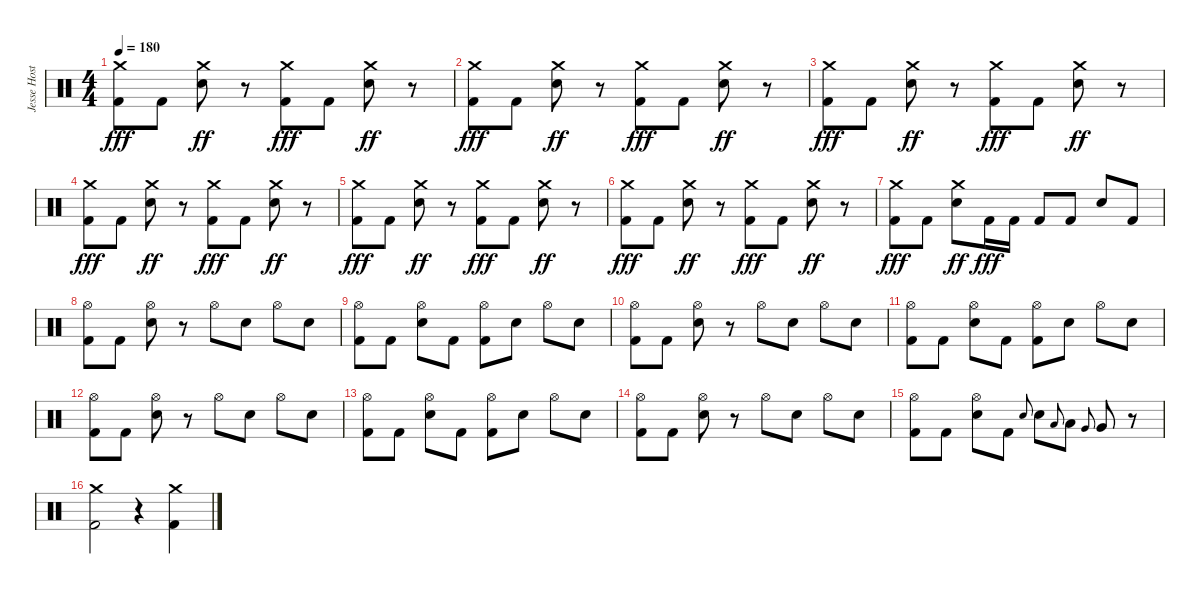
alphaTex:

\track ("Jesse Hostetler" "Jesse Host") {instrument percussion}
\staff {score}
\articulation defaults
\ts (4 4)
\tempo 180
\clef neutral
\ks c
("Crash medium (hit)" "Kick (hit) 2").8{dy fff} "Kick (hit) 2".8 ("Crash medium (hit)" "Electric Snare (hit)").8{dy ff} r.8 ("Crash medium (hit)" "Kick (hit) 2").8{dy fff} "Kick (hit) 2".8 ("Crash medium (hit)" "Electric Snare (hit)").8{dy ff} r.8 |
("Crash medium (hit)" "Kick (hit) 2").8{dy fff} "Kick (hit) 2".8 ("Crash medium (hit)" "Electric Snare (hit)").8{dy ff} r.8 ("Crash medium (hit)" "Kick (hit) 2").8{dy fff} "Kick (hit) 2".8 ("Crash medium (hit)" "Electric Snare (hit)").8{dy ff} r.8 |
("Crash medium (hit)" "Kick (hit) 2").8{dy fff} "Kick (hit) 2".8 ("Crash medium (hit)" "Electric Snare (hit)").8{dy ff} r.8 ("Crash medium (hit)" "Kick (hit) 2").8{dy fff} "Kick (hit) 2".8 ("Crash medium (hit)" "Electric Snare (hit)").8{dy ff} r.8 |
("Crash medium (hit)" "Kick (hit) 2").8{dy fff} "Kick (hit) 2".8 ("Crash medium (hit)" "Electric Snare (hit)").8{dy ff} r.8 ("Crash medium (hit)" "Kick (hit) 2").8{dy fff} "Kick (hit) 2".8 ("Crash medium (hit)" "Electric Snare (hit)").8{dy ff} r.8 |
("Crash medium (hit)" "Kick (hit) 2").8{dy fff} "Kick (hit) 2".8 ("Crash medium (hit)" "Electric Snare (hit)").8{dy ff} r.8 ("Crash medium (hit)" "Kick (hit) 2").8{dy fff} "Kick (hit) 2".8 ("Crash medium (hit)" "Electric Snare (hit)").8{dy ff} r.8 |
("Crash medium (hit)" "Kick (hit) 2").8{dy fff} "Kick (hit) 2".8 ("Crash medium (hit)" "Electric Snare (hit)").8{dy ff} r.8 ("Crash medium (hit)" "Kick (hit) 2").8{dy fff} "Kick (hit) 2".8 ("Crash medium (hit)" "Electric Snare (hit)").8{dy ff} r.8 |
("Crash medium (hit)" "Kick (hit) 2").8{dy fff} "Kick (hit) 2".8 ("Crash medium (hit)" "Electric Snare (hit)").8{dy ff} "Kick (hit) 2".16{dy fff} "Kick (hit) 2".16 "Kick (hit) 2".8 "Kick (hit) 2".8 "Electric Snare (hit)".8 "Kick (hit) 2".8 |
("Hi-Hat (open)" "Kick (hit) 2").8 "Kick (hit) 2".8 ("Hi-Hat (open)" "Electric Snare (hit)").8 r.8 "Hi-Hat (open)".8 "Electric Snare (hit)".8 "Hi-Hat (open)".8 "Electric Snare (hit)".8 |
("Hi-Hat (open)" "Kick (hit) 2").8 "Kick (hit) 2".8 ("Hi-Hat (open)" "Electric Snare (hit)").8 "Kick (hit) 2".8 ("Hi-Hat (open)" "Kick (hit) 2").8 "Electric Snare (hit)".8 "Hi-Hat (open)".8 "Electric Snare (hit)".8 |
("Hi-Hat (open)" "Kick (hit) 2").8 "Kick (hit) 2".8 ("Hi-Hat (open)" "Electric Snare (hit)").8 r.8 "Hi-Hat (open)".8 "Electric Snare (hit)".8 "Hi-Hat (open)".8 "Electric Snare (hit)".8 |
("Hi-Hat (open)" "Kick (hit) 2").8 "Kick (hit) 2".8 ("Hi-Hat (open)" "Electric Snare (hit)").8 "Kick (hit) 2".8 ("Hi-Hat (open)" "Kick (hit) 2").8 "Electric Snare (hit)".8 "Hi-Hat (open)".8 "Electric Snare (hit)".8 |
("Hi-Hat (open)" "Kick (hit) 2").8 "Kick (hit) 2".8 ("Hi-Hat (open)" "Electric Snare (hit)").8 r.8 "Hi-Hat (open)".8 "Electric Snare (hit)".8 "Hi-Hat (open)".8 "Electric Snare (hit)".8 |
("Hi-Hat (open)" "Kick (hit) 2").8 "Kick (hit) 2".8 ("Hi-Hat (open)" "Electric Snare (hit)").8 "Kick (hit) 2".8 ("Hi-Hat (open)" "Kick (hit) 2").8 "Electric Snare (hit)".8 "Hi-Hat (open)".8 "Electric Snare (hit)".8 |
("Hi-Hat (open)" "Kick (hit) 2").8 "Kick (hit) 2".8 ("Hi-Hat (open)" "Electric Snare (hit)").8 r.8 "Hi-Hat (open)".8 "Electric Snare (hit)".8 "Hi-Hat (open)".8 "Electric Snare (hit)".8 |
("Hi-Hat (open)" "Kick (hit) 2").8 "Kick (hit) 2".8 ("Hi-Hat (open)" "Electric Snare (hit)").8 "Kick (hit) 2".8 "Electric Snare (hit)".8{gr onbeat} "Electric Snare (hit)".8 "Low Tom (hit)".8{gr onbeat} "Low Tom (hit)".8 "Very Low Tom (hit)".8{gr onbeat} "Very Low Tom (hit)".8 r.8 |
("Crash medium (hit)" "Kick (hit) 2").2 r.4 ("Crash medium (hit)" "Kick (hit) 2").4
